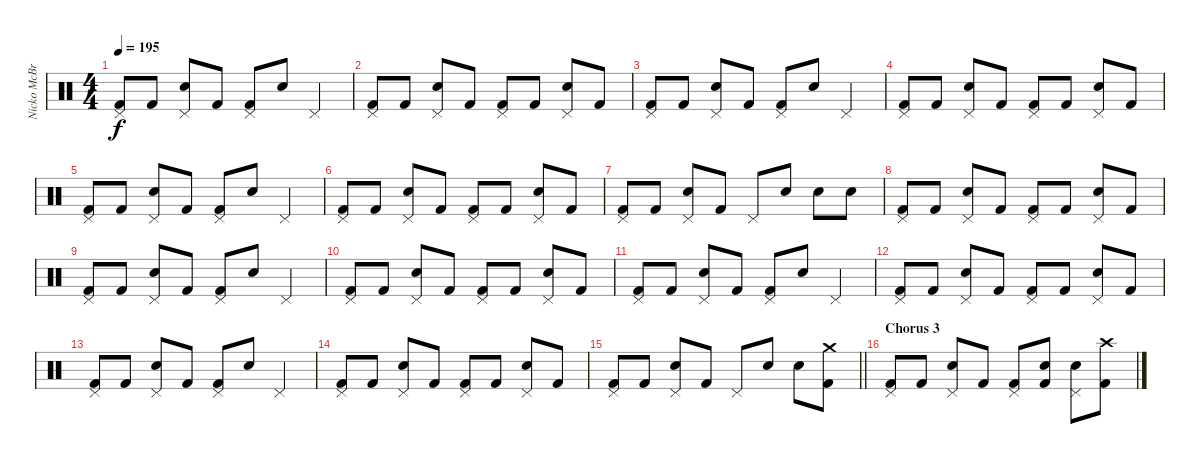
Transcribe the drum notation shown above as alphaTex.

\track ("Nicko McBrain" "Nicko McBr") {instrument percussion}
\staff {score}
\articulation defaults
\ts (4 4)
\tempo 195
\clef neutral
\ks c
("Pedal Hi-Hat (hit)" "Kick (hit) 2").8{dy f} "Kick (hit) 2".8 ("Pedal Hi-Hat (hit)" "Snare (hit) 2").8 "Kick (hit) 2".8 ("Pedal Hi-Hat (hit)" "Kick (hit) 2").8 "Snare (hit) 2".8 "Pedal Hi-Hat (hit)".4 |
("Pedal Hi-Hat (hit)" "Kick (hit) 2").8 "Kick (hit) 2".8 ("Pedal Hi-Hat (hit)" "Snare (hit) 2").8 "Kick (hit) 2".8 ("Pedal Hi-Hat (hit)" "Kick (hit) 2").8 "Kick (hit) 2".8 ("Pedal Hi-Hat (hit)" "Snare (hit) 2").8 "Kick (hit) 2".8 |
("Pedal Hi-Hat (hit)" "Kick (hit) 2").8 "Kick (hit) 2".8 ("Pedal Hi-Hat (hit)" "Snare (hit) 2").8 "Kick (hit) 2".8 ("Pedal Hi-Hat (hit)" "Kick (hit) 2").8 "Snare (hit) 2".8 "Pedal Hi-Hat (hit)".4 |
("Pedal Hi-Hat (hit)" "Kick (hit) 2").8 "Kick (hit) 2".8 ("Pedal Hi-Hat (hit)" "Snare (hit) 2").8 "Kick (hit) 2".8 ("Pedal Hi-Hat (hit)" "Kick (hit) 2").8 "Kick (hit) 2".8 ("Pedal Hi-Hat (hit)" "Snare (hit) 2").8 "Kick (hit) 2".8 |
("Pedal Hi-Hat (hit)" "Kick (hit) 2").8 "Kick (hit) 2".8 ("Pedal Hi-Hat (hit)" "Snare (hit) 2").8 "Kick (hit) 2".8 ("Pedal Hi-Hat (hit)" "Kick (hit) 2").8 "Snare (hit) 2".8 "Pedal Hi-Hat (hit)".4 |
("Pedal Hi-Hat (hit)" "Kick (hit) 2").8 "Kick (hit) 2".8 ("Pedal Hi-Hat (hit)" "Snare (hit) 2").8 "Kick (hit) 2".8 ("Pedal Hi-Hat (hit)" "Kick (hit) 2").8 "Kick (hit) 2".8 ("Pedal Hi-Hat (hit)" "Snare (hit) 2").8 "Kick (hit) 2".8 |
("Pedal Hi-Hat (hit)" "Kick (hit) 2").8 "Kick (hit) 2".8 ("Pedal Hi-Hat (hit)" "Snare (hit) 2").8 "Kick (hit) 2".8 "Pedal Hi-Hat (hit)".8 "Snare (hit) 2".8 "Snare (hit) 2".8 "Snare (hit) 2".8 |
("Pedal Hi-Hat (hit)" "Kick (hit) 2").8 "Kick (hit) 2".8 ("Pedal Hi-Hat (hit)" "Snare (hit) 2").8 "Kick (hit) 2".8 ("Pedal Hi-Hat (hit)" "Kick (hit) 2").8 "Kick (hit) 2".8 ("Pedal Hi-Hat (hit)" "Snare (hit) 2").8 "Kick (hit) 2".8 |
("Pedal Hi-Hat (hit)" "Kick (hit) 2").8 "Kick (hit) 2".8 ("Pedal Hi-Hat (hit)" "Snare (hit) 2").8 "Kick (hit) 2".8 ("Pedal Hi-Hat (hit)" "Kick (hit) 2").8 "Snare (hit) 2".8 "Pedal Hi-Hat (hit)".4 |
("Pedal Hi-Hat (hit)" "Kick (hit) 2").8 "Kick (hit) 2".8 ("Pedal Hi-Hat (hit)" "Snare (hit) 2").8 "Kick (hit) 2".8 ("Pedal Hi-Hat (hit)" "Kick (hit) 2").8 "Kick (hit) 2".8 ("Pedal Hi-Hat (hit)" "Snare (hit) 2").8 "Kick (hit) 2".8 |
("Pedal Hi-Hat (hit)" "Kick (hit) 2").8 "Kick (hit) 2".8 ("Pedal Hi-Hat (hit)" "Snare (hit) 2").8 "Kick (hit) 2".8 ("Pedal Hi-Hat (hit)" "Kick (hit) 2").8 "Snare (hit) 2".8 "Pedal Hi-Hat (hit)".4 |
("Pedal Hi-Hat (hit)" "Kick (hit) 2").8 "Kick (hit) 2".8 ("Pedal Hi-Hat (hit)" "Snare (hit) 2").8 "Kick (hit) 2".8 ("Pedal Hi-Hat (hit)" "Kick (hit) 2").8 "Kick (hit) 2".8 ("Pedal Hi-Hat (hit)" "Snare (hit) 2").8 "Kick (hit) 2".8 |
("Pedal Hi-Hat (hit)" "Kick (hit) 2").8 "Kick (hit) 2".8 ("Pedal Hi-Hat (hit)" "Snare (hit) 2").8 "Kick (hit) 2".8 ("Pedal Hi-Hat (hit)" "Kick (hit) 2").8 "Snare (hit) 2".8 "Pedal Hi-Hat (hit)".4 |
("Pedal Hi-Hat (hit)" "Kick (hit) 2").8 "Kick (hit) 2".8 ("Pedal Hi-Hat (hit)" "Snare (hit) 2").8 "Kick (hit) 2".8 ("Pedal Hi-Hat (hit)" "Kick (hit) 2").8 "Kick (hit) 2".8 ("Pedal Hi-Hat (hit)" "Snare (hit) 2").8 "Kick (hit) 2".8 |
\barLineRight lightlight
("Pedal Hi-Hat (hit)" "Kick (hit) 2").8 "Kick (hit) 2".8 ("Pedal Hi-Hat (hit)" "Snare (hit) 2").8 "Kick (hit) 2".8 "Pedal Hi-Hat (hit)".8 "Snare (hit) 2".8 "Snare (hit) 2".8 ("Crash medium (hit)" "Kick (hit) 2").8 |
\section ("" "Chorus 3")
("Pedal Hi-Hat (hit)" "Kick (hit) 2").8 "Kick (hit) 2".8 ("Pedal Hi-Hat (hit)" "Snare (hit) 2").8 "Kick (hit) 2".8 ("Pedal Hi-Hat (hit)" "Kick (hit) 2").8 ("Snare (hit) 2" "Kick (hit) 2").8 ("Pedal Hi-Hat (hit)" "Snare (hit) 2").8 ("Crash high (hit)" "Kick (hit) 2").8
